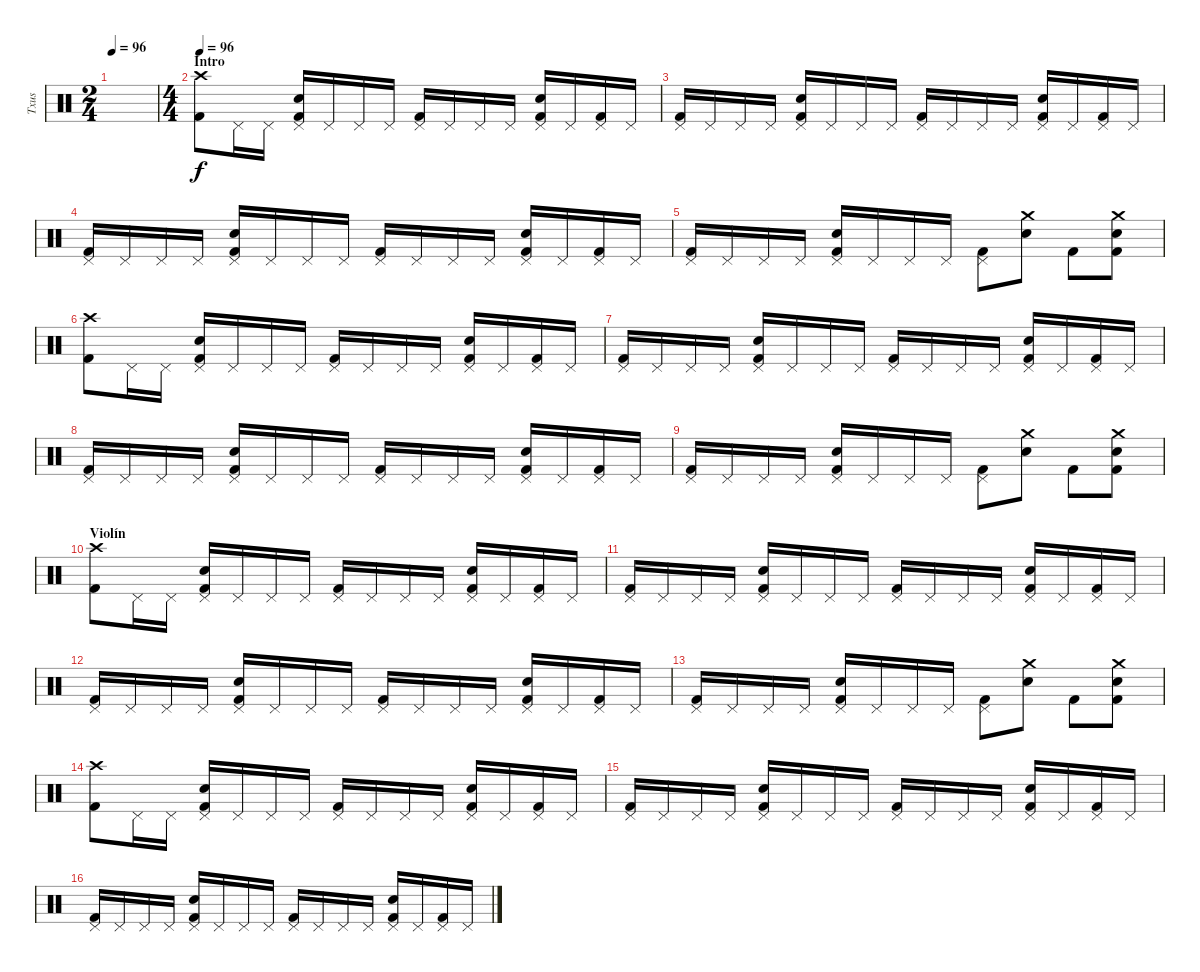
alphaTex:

\track ("Txus" "Txus") {instrument percussion}
\staff {score}
\articulation defaults
\ts (2 4)
\tempo 96
\clef neutral
\ks c
|
\ts (4 4)
\section ("" "Intro")
\tempo 96
("Kick (hit) 2" "Crash high (hit)").8 "Pedal Hi-Hat (hit)".16 "Pedal Hi-Hat (hit)".16 ("Kick (hit) 2" "Electric Snare (hit)" "Pedal Hi-Hat (hit)").16 "Pedal Hi-Hat (hit)".16 "Pedal Hi-Hat (hit)".16 "Pedal Hi-Hat (hit)".16 ("Kick (hit) 2" "Pedal Hi-Hat (hit)").16 "Pedal Hi-Hat (hit)".16 "Pedal Hi-Hat (hit)".16 "Pedal Hi-Hat (hit)".16 ("Kick (hit) 2" "Electric Snare (hit)" "Pedal Hi-Hat (hit)").16 "Pedal Hi-Hat (hit)".16 ("Kick (hit) 2" "Pedal Hi-Hat (hit)").16 "Pedal Hi-Hat (hit)".16 |
("Kick (hit) 2" "Pedal Hi-Hat (hit)").16 "Pedal Hi-Hat (hit)".16 "Pedal Hi-Hat (hit)".16 "Pedal Hi-Hat (hit)".16 ("Kick (hit) 2" "Electric Snare (hit)" "Pedal Hi-Hat (hit)").16 "Pedal Hi-Hat (hit)".16 "Pedal Hi-Hat (hit)".16 "Pedal Hi-Hat (hit)".16 ("Kick (hit) 2" "Pedal Hi-Hat (hit)").16 "Pedal Hi-Hat (hit)".16 "Pedal Hi-Hat (hit)".16 "Pedal Hi-Hat (hit)".16 ("Kick (hit) 2" "Electric Snare (hit)" "Pedal Hi-Hat (hit)").16 "Pedal Hi-Hat (hit)".16 ("Kick (hit) 2" "Pedal Hi-Hat (hit)").16 "Pedal Hi-Hat (hit)".16 |
("Kick (hit) 2" "Pedal Hi-Hat (hit)").16 "Pedal Hi-Hat (hit)".16 "Pedal Hi-Hat (hit)".16 "Pedal Hi-Hat (hit)".16 ("Kick (hit) 2" "Electric Snare (hit)" "Pedal Hi-Hat (hit)").16 "Pedal Hi-Hat (hit)".16 "Pedal Hi-Hat (hit)".16 "Pedal Hi-Hat (hit)".16 ("Kick (hit) 2" "Pedal Hi-Hat (hit)").16 "Pedal Hi-Hat (hit)".16 "Pedal Hi-Hat (hit)".16 "Pedal Hi-Hat (hit)".16 ("Kick (hit) 2" "Electric Snare (hit)" "Pedal Hi-Hat (hit)").16 "Pedal Hi-Hat (hit)".16 ("Kick (hit) 2" "Pedal Hi-Hat (hit)").16 "Pedal Hi-Hat (hit)".16 |
("Kick (hit) 2" "Pedal Hi-Hat (hit)").16 "Pedal Hi-Hat (hit)".16 "Pedal Hi-Hat (hit)".16 "Pedal Hi-Hat (hit)".16 ("Kick (hit) 2" "Electric Snare (hit)" "Pedal Hi-Hat (hit)").16 "Pedal Hi-Hat (hit)".16 "Pedal Hi-Hat (hit)".16 "Pedal Hi-Hat (hit)".16 ("Kick (hit) 2" "Pedal Hi-Hat (hit)").8 ("Electric Snare (hit)" "Crash medium (hit)").8 "Kick (hit) 2".8 ("Kick (hit) 2" "Electric Snare (hit)" "Crash medium (hit)").8 |
("Kick (hit) 2" "Crash high (hit)").8 "Pedal Hi-Hat (hit)".16 "Pedal Hi-Hat (hit)".16 ("Kick (hit) 2" "Electric Snare (hit)" "Pedal Hi-Hat (hit)").16 "Pedal Hi-Hat (hit)".16 "Pedal Hi-Hat (hit)".16 "Pedal Hi-Hat (hit)".16 ("Kick (hit) 2" "Pedal Hi-Hat (hit)").16 "Pedal Hi-Hat (hit)".16 "Pedal Hi-Hat (hit)".16 "Pedal Hi-Hat (hit)".16 ("Kick (hit) 2" "Electric Snare (hit)" "Pedal Hi-Hat (hit)").16 "Pedal Hi-Hat (hit)".16 ("Kick (hit) 2" "Pedal Hi-Hat (hit)").16 "Pedal Hi-Hat (hit)".16 |
("Kick (hit) 2" "Pedal Hi-Hat (hit)").16 "Pedal Hi-Hat (hit)".16 "Pedal Hi-Hat (hit)".16 "Pedal Hi-Hat (hit)".16 ("Kick (hit) 2" "Electric Snare (hit)" "Pedal Hi-Hat (hit)").16 "Pedal Hi-Hat (hit)".16 "Pedal Hi-Hat (hit)".16 "Pedal Hi-Hat (hit)".16 ("Kick (hit) 2" "Pedal Hi-Hat (hit)").16 "Pedal Hi-Hat (hit)".16 "Pedal Hi-Hat (hit)".16 "Pedal Hi-Hat (hit)".16 ("Kick (hit) 2" "Electric Snare (hit)" "Pedal Hi-Hat (hit)").16 "Pedal Hi-Hat (hit)".16 ("Kick (hit) 2" "Pedal Hi-Hat (hit)").16 "Pedal Hi-Hat (hit)".16 |
("Kick (hit) 2" "Pedal Hi-Hat (hit)").16 "Pedal Hi-Hat (hit)".16 "Pedal Hi-Hat (hit)".16 "Pedal Hi-Hat (hit)".16 ("Kick (hit) 2" "Electric Snare (hit)" "Pedal Hi-Hat (hit)").16 "Pedal Hi-Hat (hit)".16 "Pedal Hi-Hat (hit)".16 "Pedal Hi-Hat (hit)".16 ("Kick (hit) 2" "Pedal Hi-Hat (hit)").16 "Pedal Hi-Hat (hit)".16 "Pedal Hi-Hat (hit)".16 "Pedal Hi-Hat (hit)".16 ("Kick (hit) 2" "Electric Snare (hit)" "Pedal Hi-Hat (hit)").16 "Pedal Hi-Hat (hit)".16 ("Kick (hit) 2" "Pedal Hi-Hat (hit)").16 "Pedal Hi-Hat (hit)".16 |
("Kick (hit) 2" "Pedal Hi-Hat (hit)").16 "Pedal Hi-Hat (hit)".16 "Pedal Hi-Hat (hit)".16 "Pedal Hi-Hat (hit)".16 ("Kick (hit) 2" "Electric Snare (hit)" "Pedal Hi-Hat (hit)").16 "Pedal Hi-Hat (hit)".16 "Pedal Hi-Hat (hit)".16 "Pedal Hi-Hat (hit)".16 ("Kick (hit) 2" "Pedal Hi-Hat (hit)").8 ("Electric Snare (hit)" "Crash medium (hit)").8 "Kick (hit) 2".8 ("Kick (hit) 2" "Electric Snare (hit)" "Crash medium (hit)").8 |
\section ("" "Violín")
("Kick (hit) 2" "Crash high (hit)").8 "Pedal Hi-Hat (hit)".16 "Pedal Hi-Hat (hit)".16 ("Kick (hit) 2" "Electric Snare (hit)" "Pedal Hi-Hat (hit)").16 "Pedal Hi-Hat (hit)".16 "Pedal Hi-Hat (hit)".16 "Pedal Hi-Hat (hit)".16 ("Kick (hit) 2" "Pedal Hi-Hat (hit)").16 "Pedal Hi-Hat (hit)".16 "Pedal Hi-Hat (hit)".16 "Pedal Hi-Hat (hit)".16 ("Kick (hit) 2" "Electric Snare (hit)" "Pedal Hi-Hat (hit)").16 "Pedal Hi-Hat (hit)".16 ("Kick (hit) 2" "Pedal Hi-Hat (hit)").16 "Pedal Hi-Hat (hit)".16 |
("Kick (hit) 2" "Pedal Hi-Hat (hit)").16 "Pedal Hi-Hat (hit)".16 "Pedal Hi-Hat (hit)".16 "Pedal Hi-Hat (hit)".16 ("Kick (hit) 2" "Electric Snare (hit)" "Pedal Hi-Hat (hit)").16 "Pedal Hi-Hat (hit)".16 "Pedal Hi-Hat (hit)".16 "Pedal Hi-Hat (hit)".16 ("Kick (hit) 2" "Pedal Hi-Hat (hit)").16 "Pedal Hi-Hat (hit)".16 "Pedal Hi-Hat (hit)".16 "Pedal Hi-Hat (hit)".16 ("Kick (hit) 2" "Electric Snare (hit)" "Pedal Hi-Hat (hit)").16 "Pedal Hi-Hat (hit)".16 ("Kick (hit) 2" "Pedal Hi-Hat (hit)").16 "Pedal Hi-Hat (hit)".16 |
("Kick (hit) 2" "Pedal Hi-Hat (hit)").16 "Pedal Hi-Hat (hit)".16 "Pedal Hi-Hat (hit)".16 "Pedal Hi-Hat (hit)".16 ("Kick (hit) 2" "Electric Snare (hit)" "Pedal Hi-Hat (hit)").16 "Pedal Hi-Hat (hit)".16 "Pedal Hi-Hat (hit)".16 "Pedal Hi-Hat (hit)".16 ("Kick (hit) 2" "Pedal Hi-Hat (hit)").16 "Pedal Hi-Hat (hit)".16 "Pedal Hi-Hat (hit)".16 "Pedal Hi-Hat (hit)".16 ("Kick (hit) 2" "Electric Snare (hit)" "Pedal Hi-Hat (hit)").16 "Pedal Hi-Hat (hit)".16 ("Kick (hit) 2" "Pedal Hi-Hat (hit)").16 "Pedal Hi-Hat (hit)".16 |
("Kick (hit) 2" "Pedal Hi-Hat (hit)").16 "Pedal Hi-Hat (hit)".16 "Pedal Hi-Hat (hit)".16 "Pedal Hi-Hat (hit)".16 ("Kick (hit) 2" "Electric Snare (hit)" "Pedal Hi-Hat (hit)").16 "Pedal Hi-Hat (hit)".16 "Pedal Hi-Hat (hit)".16 "Pedal Hi-Hat (hit)".16 ("Kick (hit) 2" "Pedal Hi-Hat (hit)").8 ("Electric Snare (hit)" "Crash medium (hit)").8 "Kick (hit) 2".8 ("Kick (hit) 2" "Electric Snare (hit)" "Crash medium (hit)").8 |
("Kick (hit) 2" "Crash high (hit)").8 "Pedal Hi-Hat (hit)".16 "Pedal Hi-Hat (hit)".16 ("Kick (hit) 2" "Electric Snare (hit)" "Pedal Hi-Hat (hit)").16 "Pedal Hi-Hat (hit)".16 "Pedal Hi-Hat (hit)".16 "Pedal Hi-Hat (hit)".16 ("Kick (hit) 2" "Pedal Hi-Hat (hit)").16 "Pedal Hi-Hat (hit)".16 "Pedal Hi-Hat (hit)".16 "Pedal Hi-Hat (hit)".16 ("Kick (hit) 2" "Electric Snare (hit)" "Pedal Hi-Hat (hit)").16 "Pedal Hi-Hat (hit)".16 ("Kick (hit) 2" "Pedal Hi-Hat (hit)").16 "Pedal Hi-Hat (hit)".16 |
("Kick (hit) 2" "Pedal Hi-Hat (hit)").16 "Pedal Hi-Hat (hit)".16 "Pedal Hi-Hat (hit)".16 "Pedal Hi-Hat (hit)".16 ("Kick (hit) 2" "Electric Snare (hit)" "Pedal Hi-Hat (hit)").16 "Pedal Hi-Hat (hit)".16 "Pedal Hi-Hat (hit)".16 "Pedal Hi-Hat (hit)".16 ("Kick (hit) 2" "Pedal Hi-Hat (hit)").16 "Pedal Hi-Hat (hit)".16 "Pedal Hi-Hat (hit)".16 "Pedal Hi-Hat (hit)".16 ("Kick (hit) 2" "Electric Snare (hit)" "Pedal Hi-Hat (hit)").16 "Pedal Hi-Hat (hit)".16 ("Kick (hit) 2" "Pedal Hi-Hat (hit)").16 "Pedal Hi-Hat (hit)".16 |
("Kick (hit) 2" "Pedal Hi-Hat (hit)").16 "Pedal Hi-Hat (hit)".16 "Pedal Hi-Hat (hit)".16 "Pedal Hi-Hat (hit)".16 ("Kick (hit) 2" "Electric Snare (hit)" "Pedal Hi-Hat (hit)").16 "Pedal Hi-Hat (hit)".16 "Pedal Hi-Hat (hit)".16 "Pedal Hi-Hat (hit)".16 ("Kick (hit) 2" "Pedal Hi-Hat (hit)").16 "Pedal Hi-Hat (hit)".16 "Pedal Hi-Hat (hit)".16 "Pedal Hi-Hat (hit)".16 ("Kick (hit) 2" "Electric Snare (hit)" "Pedal Hi-Hat (hit)").16 "Pedal Hi-Hat (hit)".16 ("Kick (hit) 2" "Pedal Hi-Hat (hit)").16 "Pedal Hi-Hat (hit)".16
